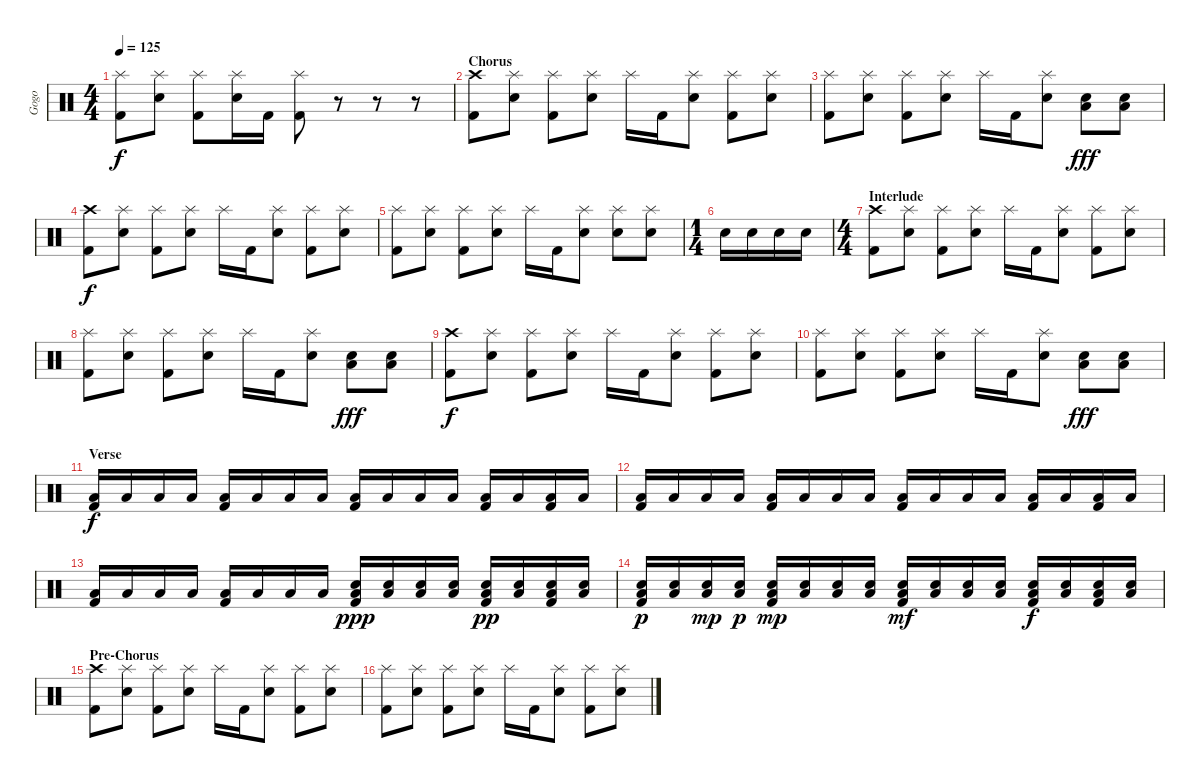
\track ("Gogo" "Gogo") {instrument percussion}
\staff {score}
\articulation defaults
\ts (4 4)
\tempo 125
\clef neutral
\ks c
("Splash (hit)" "Kick (hit) 2").8{dy f} ("Splash (hit)" "Electric Snare (hit)").8 ("Splash (hit)" "Kick (hit) 2").8 ("Splash (hit)" "Electric Snare (hit)").16 "Kick (hit) 2".16 ("Splash (hit)" "Kick (hit) 2").8 r.8 r.8 r.8 |
\section ("" "Chorus")
("Crash high (hit)" "Kick (hit) 2").8 ("Splash (hit)" "Electric Snare (hit)").8 ("Splash (hit)" "Kick (hit) 2").8 ("Splash (hit)" "Electric Snare (hit)").8 "Splash (hit)".16 "Kick (hit) 2".16 ("Splash (hit)" "Electric Snare (hit)").8 ("Splash (hit)" "Kick (hit) 2").8 ("Splash (hit)" "Electric Snare (hit)").8 |
("Splash (hit)" "Kick (hit) 2").8 ("Splash (hit)" "Electric Snare (hit)").8 ("Splash (hit)" "Kick (hit) 2").8 ("Splash (hit)" "Electric Snare (hit)").8 "Splash (hit)".16 "Kick (hit) 2".16 ("Splash (hit)" "Electric Snare (hit)").8 ("Electric Snare (hit)" "Low Floor Tom (hit)").8{dy fff} ("Electric Snare (hit)" "Low Floor Tom (hit)").8 |
("Crash high (hit)" "Kick (hit) 2").8{dy f} ("Splash (hit)" "Electric Snare (hit)").8 ("Splash (hit)" "Kick (hit) 2").8 ("Splash (hit)" "Electric Snare (hit)").8 "Splash (hit)".16 "Kick (hit) 2".16 ("Splash (hit)" "Electric Snare (hit)").8 ("Splash (hit)" "Kick (hit) 2").8 ("Splash (hit)" "Electric Snare (hit)").8 |
("Splash (hit)" "Kick (hit) 2").8 ("Splash (hit)" "Electric Snare (hit)").8 ("Splash (hit)" "Kick (hit) 2").8 ("Splash (hit)" "Electric Snare (hit)").8 "Splash (hit)".16 "Kick (hit) 2".16 ("Splash (hit)" "Electric Snare (hit)").8 ("Splash (hit)" "Electric Snare (hit)").8 ("Splash (hit)" "Electric Snare (hit)").8 |
\ts (1 4)
"Electric Snare (hit)".16 "Electric Snare (hit)".16 "Electric Snare (hit)".16 "Electric Snare (hit)".16 |
\ts (4 4)
\section ("" "Interlude")
("Crash high (hit)" "Kick (hit) 2").8 ("Splash (hit)" "Electric Snare (hit)").8 ("Splash (hit)" "Kick (hit) 2").8 ("Splash (hit)" "Electric Snare (hit)").8 "Splash (hit)".16 "Kick (hit) 2".16 ("Splash (hit)" "Electric Snare (hit)").8 ("Splash (hit)" "Kick (hit) 2").8 ("Splash (hit)" "Electric Snare (hit)").8 |
("Splash (hit)" "Kick (hit) 2").8 ("Splash (hit)" "Electric Snare (hit)").8 ("Splash (hit)" "Kick (hit) 2").8 ("Splash (hit)" "Electric Snare (hit)").8 "Splash (hit)".16 "Kick (hit) 2".16 ("Splash (hit)" "Electric Snare (hit)").8 ("Electric Snare (hit)" "Low Floor Tom (hit)").8{dy fff} ("Electric Snare (hit)" "Low Floor Tom (hit)").8 |
("Crash high (hit)" "Kick (hit) 2").8{dy f} ("Splash (hit)" "Electric Snare (hit)").8 ("Splash (hit)" "Kick (hit) 2").8 ("Splash (hit)" "Electric Snare (hit)").8 "Splash (hit)".16 "Kick (hit) 2".16 ("Splash (hit)" "Electric Snare (hit)").8 ("Splash (hit)" "Kick (hit) 2").8 ("Splash (hit)" "Electric Snare (hit)").8 |
("Splash (hit)" "Kick (hit) 2").8 ("Splash (hit)" "Electric Snare (hit)").8 ("Splash (hit)" "Kick (hit) 2").8 ("Splash (hit)" "Electric Snare (hit)").8 "Splash (hit)".16 "Kick (hit) 2".16 ("Splash (hit)" "Electric Snare (hit)").8 ("Electric Snare (hit)" "Low Floor Tom (hit)").8{dy fff} ("Electric Snare (hit)" "Low Floor Tom (hit)").8 |
\section ("" "Verse")
("Low Floor Tom (hit)" "Kick (hit) 2").16{dy f} "Low Floor Tom (hit)".16 "Low Floor Tom (hit)".16 "Low Floor Tom (hit)".16 ("Low Floor Tom (hit)" "Kick (hit) 2").16 "Low Floor Tom (hit)".16 "Low Floor Tom (hit)".16 "Low Floor Tom (hit)".16 ("Low Floor Tom (hit)" "Kick (hit) 2").16 "Low Floor Tom (hit)".16 "Low Floor Tom (hit)".16 "Low Floor Tom (hit)".16 ("Low Floor Tom (hit)" "Kick (hit) 2").16 "Low Floor Tom (hit)".16 ("Low Floor Tom (hit)" "Kick (hit) 2").16 "Low Floor Tom (hit)".16 |
("Low Floor Tom (hit)" "Kick (hit) 2").16 "Low Floor Tom (hit)".16 "Low Floor Tom (hit)".16 "Low Floor Tom (hit)".16 ("Low Floor Tom (hit)" "Kick (hit) 2").16 "Low Floor Tom (hit)".16 "Low Floor Tom (hit)".16 "Low Floor Tom (hit)".16 ("Low Floor Tom (hit)" "Kick (hit) 2").16 "Low Floor Tom (hit)".16 "Low Floor Tom (hit)".16 "Low Floor Tom (hit)".16 ("Low Floor Tom (hit)" "Kick (hit) 2").16 "Low Floor Tom (hit)".16 ("Low Floor Tom (hit)" "Kick (hit) 2").16 "Low Floor Tom (hit)".16 |
("Low Floor Tom (hit)" "Kick (hit) 2").16 "Low Floor Tom (hit)".16 "Low Floor Tom (hit)".16 "Low Floor Tom (hit)".16 ("Low Floor Tom (hit)" "Kick (hit) 2").16 "Low Floor Tom (hit)".16 "Low Floor Tom (hit)".16 "Low Floor Tom (hit)".16 ("Electric Snare (hit)" "Low Floor Tom (hit)" "Kick (hit) 2").16{dy ppp} ("Electric Snare (hit)" "Low Floor Tom (hit)").16 ("Electric Snare (hit)" "Low Floor Tom (hit)").16 ("Electric Snare (hit)" "Low Floor Tom (hit)").16 ("Electric Snare (hit)" "Low Floor Tom (hit)" "Kick (hit) 2").16{dy pp} ("Electric Snare (hit)" "Low Floor Tom (hit)").16 ("Electric Snare (hit)" "Low Floor Tom (hit)" "Kick (hit) 2").16 ("Electric Snare (hit)" "Low Floor Tom (hit)").16 |
("Electric Snare (hit)" "Low Floor Tom (hit)" "Kick (hit) 2").16{dy p} ("Electric Snare (hit)" "Low Floor Tom (hit)").16 ("Electric Snare (hit)" "Low Floor Tom (hit)").16{dy mp} ("Electric Snare (hit)" "Low Floor Tom (hit)").16{dy p} ("Electric Snare (hit)" "Low Floor Tom (hit)" "Kick (hit) 2").16{dy mp} ("Electric Snare (hit)" "Low Floor Tom (hit)").16 ("Electric Snare (hit)" "Low Floor Tom (hit)").16 ("Electric Snare (hit)" "Low Floor Tom (hit)").16 ("Electric Snare (hit)" "Low Floor Tom (hit)" "Kick (hit) 2").16{dy mf} ("Electric Snare (hit)" "Low Floor Tom (hit)").16 ("Electric Snare (hit)" "Low Floor Tom (hit)").16 ("Electric Snare (hit)" "Low Floor Tom (hit)").16 ("Electric Snare (hit)" "Low Floor Tom (hit)" "Kick (hit) 2").16{dy f} ("Electric Snare (hit)" "Low Floor Tom (hit)").16 ("Electric Snare (hit)" "Low Floor Tom (hit)" "Kick (hit) 2").16 ("Electric Snare (hit)" "Low Floor Tom (hit)").16 |
\section ("" "Pre-Chorus")
("Crash high (hit)" "Kick (hit) 2").8 ("Splash (hit)" "Electric Snare (hit)").8 ("Splash (hit)" "Kick (hit) 2").8 ("Splash (hit)" "Electric Snare (hit)").8 "Splash (hit)".16 "Kick (hit) 2".16 ("Splash (hit)" "Electric Snare (hit)").8 ("Splash (hit)" "Kick (hit) 2").8 ("Splash (hit)" "Electric Snare (hit)").8 |
("Splash (hit)" "Kick (hit) 2").8 ("Splash (hit)" "Electric Snare (hit)").8 ("Splash (hit)" "Kick (hit) 2").8 ("Splash (hit)" "Electric Snare (hit)").8 "Splash (hit)".16 "Kick (hit) 2".16 ("Splash (hit)" "Electric Snare (hit)").8 ("Splash (hit)" "Kick (hit) 2").8 ("Splash (hit)" "Electric Snare (hit)").8
